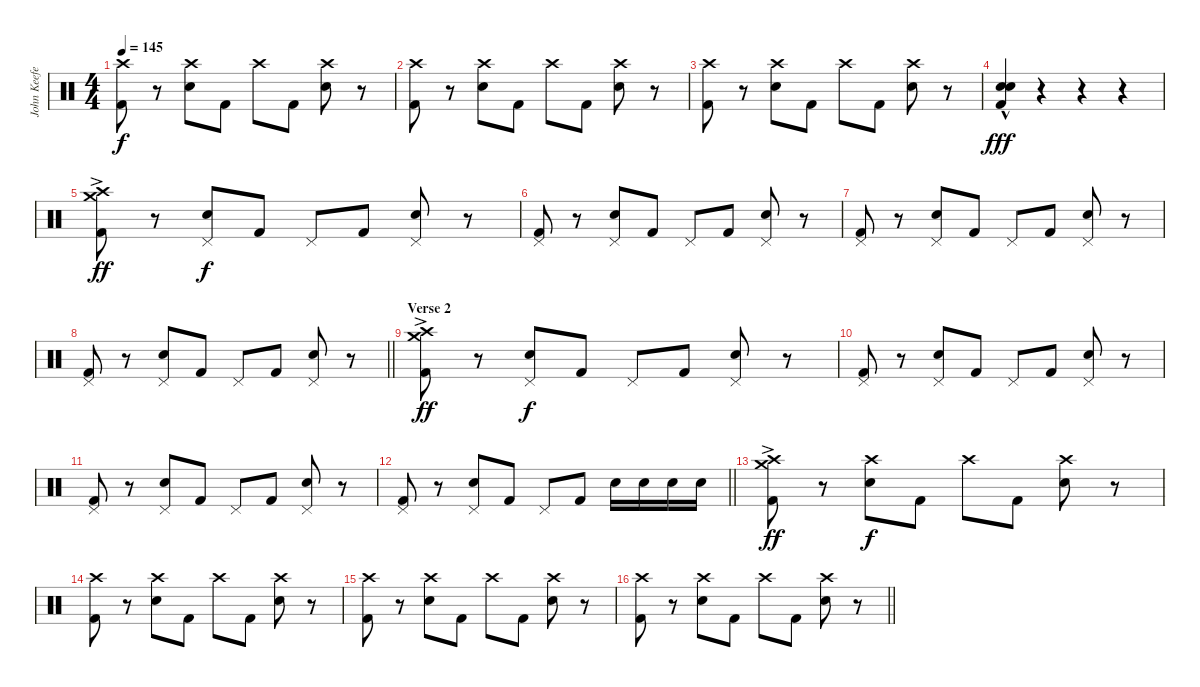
\track ("John Keefe (Percussion)" "John Keefe") {instrument percussion}
\staff {score}
\articulation defaults
\ts (4 4)
\tempo 145
\clef neutral
\ks c
("Crash high (hit)" "Kick (hit) 2").8{dy f} r.8 ("Crash high (hit)" "Electric Snare (hit)").8 "Kick (hit) 2".8 "Crash high (hit)".8 "Kick (hit) 2".8 ("Crash high (hit)" "Electric Snare (hit)").8 r.8 |
("Crash high (hit)" "Kick (hit) 2").8 r.8 ("Crash high (hit)" "Electric Snare (hit)").8 "Kick (hit) 2".8 "Crash high (hit)".8 "Kick (hit) 2".8 ("Crash high (hit)" "Electric Snare (hit)").8 r.8 |
("Crash high (hit)" "Kick (hit) 2").8 r.8 ("Crash high (hit)" "Electric Snare (hit)").8 "Kick (hit) 2".8 "Crash high (hit)".8 "Kick (hit) 2".8 ("Crash high (hit)" "Electric Snare (hit)").8 r.8 |
("Snare (hit) 2" "Kick (hit) 2" "Electric Snare (hit)"{hac}).4{dy fff} r.4 r.4 r.4 |
("Crash high (hit)"{ac} "Crash medium (hit)" "Kick (hit) 2"{ac}).8{dy ff} r.8 ("Pedal Hi-Hat (hit)" "Electric Snare (hit)").8{dy f} "Kick (hit) 2".8 "Pedal Hi-Hat (hit)".8 "Kick (hit) 2".8 ("Pedal Hi-Hat (hit)" "Electric Snare (hit)").8 r.8 |
("Pedal Hi-Hat (hit)" "Kick (hit) 2").8 r.8 ("Pedal Hi-Hat (hit)" "Electric Snare (hit)").8 "Kick (hit) 2".8 "Pedal Hi-Hat (hit)".8 "Kick (hit) 2".8 ("Pedal Hi-Hat (hit)" "Electric Snare (hit)").8 r.8 |
("Pedal Hi-Hat (hit)" "Kick (hit) 2").8 r.8 ("Pedal Hi-Hat (hit)" "Electric Snare (hit)").8 "Kick (hit) 2".8 "Pedal Hi-Hat (hit)".8 "Kick (hit) 2".8 ("Pedal Hi-Hat (hit)" "Electric Snare (hit)").8 r.8 |
\barLineRight lightlight
("Pedal Hi-Hat (hit)" "Kick (hit) 2").8 r.8 ("Pedal Hi-Hat (hit)" "Electric Snare (hit)").8 "Kick (hit) 2".8 "Pedal Hi-Hat (hit)".8 "Kick (hit) 2".8 ("Pedal Hi-Hat (hit)" "Electric Snare (hit)").8 r.8 |
\section ("" "Verse 2")
("Crash high (hit)"{ac} "Crash medium (hit)" "Kick (hit) 2"{ac}).8{dy ff} r.8 ("Pedal Hi-Hat (hit)" "Electric Snare (hit)").8{dy f} "Kick (hit) 2".8 "Pedal Hi-Hat (hit)".8 "Kick (hit) 2".8 ("Pedal Hi-Hat (hit)" "Electric Snare (hit)").8 r.8 |
("Pedal Hi-Hat (hit)" "Kick (hit) 2").8 r.8 ("Pedal Hi-Hat (hit)" "Electric Snare (hit)").8 "Kick (hit) 2".8 "Pedal Hi-Hat (hit)".8 "Kick (hit) 2".8 ("Pedal Hi-Hat (hit)" "Electric Snare (hit)").8 r.8 |
("Pedal Hi-Hat (hit)" "Kick (hit) 2").8 r.8 ("Pedal Hi-Hat (hit)" "Electric Snare (hit)").8 "Kick (hit) 2".8 "Pedal Hi-Hat (hit)".8 "Kick (hit) 2".8 ("Pedal Hi-Hat (hit)" "Electric Snare (hit)").8 r.8 |
\barLineRight lightlight
("Pedal Hi-Hat (hit)" "Kick (hit) 2").8 r.8 ("Pedal Hi-Hat (hit)" "Electric Snare (hit)").8 "Kick (hit) 2".8 "Pedal Hi-Hat (hit)".8 "Kick (hit) 2".8 "Electric Snare (hit)".16 "Electric Snare (hit)".16 "Electric Snare (hit)".16 "Electric Snare (hit)".16 |
("Crash high (hit)"{ac} "Crash medium (hit)" "Kick (hit) 2").8{dy ff} r.8 ("Crash high (hit)" "Electric Snare (hit)").8{dy f} "Kick (hit) 2".8 "Crash high (hit)".8 "Kick (hit) 2".8 ("Crash high (hit)" "Electric Snare (hit)").8 r.8 |
("Crash high (hit)" "Kick (hit) 2").8 r.8 ("Crash high (hit)" "Electric Snare (hit)").8 "Kick (hit) 2".8 "Crash high (hit)".8 "Kick (hit) 2".8 ("Crash high (hit)" "Electric Snare (hit)").8 r.8 |
("Crash high (hit)" "Kick (hit) 2").8 r.8 ("Crash high (hit)" "Electric Snare (hit)").8 "Kick (hit) 2".8 "Crash high (hit)".8 "Kick (hit) 2".8 ("Crash high (hit)" "Electric Snare (hit)").8 r.8 |
\barLineRight lightlight
("Crash high (hit)" "Kick (hit) 2").8 r.8 ("Crash high (hit)" "Electric Snare (hit)").8 "Kick (hit) 2".8 "Crash high (hit)".8 "Kick (hit) 2".8 ("Crash high (hit)" "Electric Snare (hit)").8 r.8
